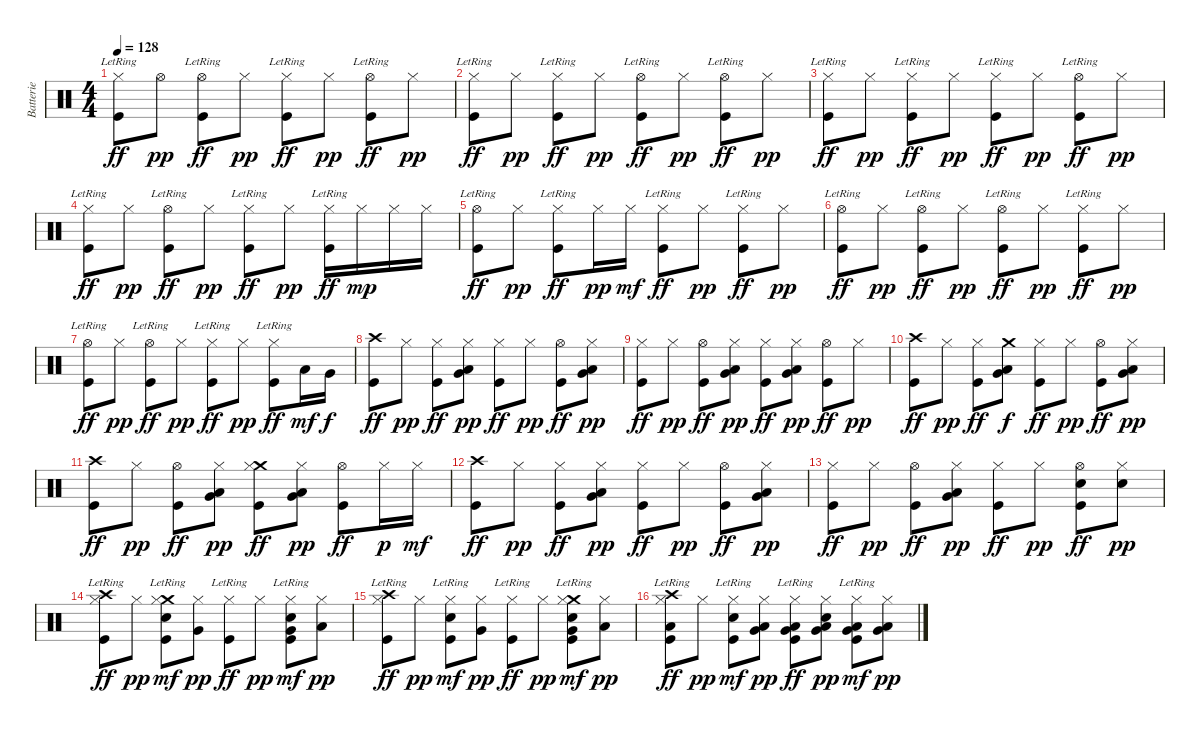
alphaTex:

\track ("Batterie" "Batterie") {instrument percussion}
\staff {score}
\articulation defaults
\ts (4 4)
\tempo 128
\clef neutral
\ks c
("Hi-Hat (closed)" "Kick (hit)"{lr}).8{dy ff} "Hi-Hat (open)".8{dy pp} ("Hi-Hat (open)" "Kick (hit)"{lr}).8{dy ff} "Hi-Hat (closed)".8{dy pp} ("Hi-Hat (closed)" "Kick (hit)"{lr}).8{dy ff} "Hi-Hat (closed)".8{dy pp} ("Hi-Hat (open)" "Kick (hit)"{lr}).8{dy ff} "Hi-Hat (closed)".8{dy pp} |
("Hi-Hat (closed)" "Kick (hit)"{lr}).8{dy ff} "Hi-Hat (closed)".8{dy pp} ("Hi-Hat (closed)" "Kick (hit)"{lr}).8{dy ff} "Hi-Hat (closed)".8{dy pp} ("Hi-Hat (open)" "Kick (hit)"{lr}).8{dy ff} "Hi-Hat (closed)".8{dy pp} ("Hi-Hat (open)" "Kick (hit)"{lr}).8{dy ff} "Hi-Hat (closed)".8{dy pp} |
("Hi-Hat (closed)" "Kick (hit)"{lr}).8{dy ff} "Hi-Hat (closed)".8{dy pp} ("Hi-Hat (closed)" "Kick (hit)"{lr}).8{dy ff} "Hi-Hat (closed)".8{dy pp} ("Hi-Hat (closed)" "Kick (hit)"{lr}).8{dy ff} "Hi-Hat (closed)".8{dy pp} ("Hi-Hat (open)" "Kick (hit)"{lr}).8{dy ff} "Hi-Hat (closed)".8{dy pp} |
("Hi-Hat (closed)" "Kick (hit)"{lr}).8{dy ff} "Hi-Hat (closed)".8{dy pp} ("Hi-Hat (open)" "Kick (hit)"{lr}).8{dy ff} "Hi-Hat (closed)".8{dy pp} ("Hi-Hat (closed)" "Kick (hit)"{lr}).8{dy ff} "Hi-Hat (closed)".8{dy pp} ("Hi-Hat (closed)" "Kick (hit)"{lr}).16{dy ff} "Hi-Hat (closed)".16{dy mp} "Hi-Hat (closed)".16 "Hi-Hat (closed)".16 |
("Hi-Hat (open)" "Kick (hit)"{lr}).8{dy ff} "Hi-Hat (closed)".8{dy pp} ("Hi-Hat (closed)" "Kick (hit)"{lr}).8{dy ff} "Hi-Hat (closed)".16{dy pp} "Hi-Hat (closed)".16{dy mf} ("Hi-Hat (closed)" "Kick (hit)"{lr}).8{dy ff} "Hi-Hat (closed)".8{dy pp} ("Hi-Hat (closed)" "Kick (hit)"{lr}).8{dy ff} "Hi-Hat (closed)".8{dy pp} |
("Hi-Hat (open)" "Kick (hit)"{lr}).8{dy ff} "Hi-Hat (closed)".8{dy pp} ("Hi-Hat (open)" "Kick (hit)"{lr}).8{dy ff} "Hi-Hat (closed)".8{dy pp} ("Hi-Hat (open)" "Kick (hit)"{lr}).8{dy ff} "Hi-Hat (closed)".8{dy pp} ("Hi-Hat (closed)" "Kick (hit)"{lr}).8{dy ff} "Hi-Hat (closed)".8{dy pp} |
("Hi-Hat (open)" "Kick (hit)"{lr}).8{dy ff} "Hi-Hat (closed)".8{dy pp} ("Hi-Hat (open)" "Kick (hit)"{lr}).8{dy ff} "Hi-Hat (closed)".8{dy pp} ("Hi-Hat (closed)" "Kick (hit)"{lr}).8{dy ff} "Hi-Hat (closed)".8{dy pp} ("Hi-Hat (closed)" "Kick (hit)"{lr}).8{dy ff} "Low Tom (hit)".16{dy mf} "Very Low Tom (hit)".16{dy f} |
("Crash high (hit)" "Kick (hit)").8{dy ff} "Hi-Hat (closed)".8{dy pp} ("Hi-Hat (closed)" "Kick (hit)").8{dy ff} ("Very Low Tom (hit)" "Low Tom (hit)" "Hi-Hat (closed)").8{dy pp} ("Hi-Hat (closed)" "Kick (hit)").8{dy ff} "Hi-Hat (closed)".8{dy pp} ("Hi-Hat (open)" "Kick (hit)").8{dy ff} ("Low Floor Tom (hit)" "Very Low Tom (hit)" "Hi-Hat (closed)").8{dy pp} |
("Hi-Hat (closed)" "Kick (hit)").8{dy ff} "Hi-Hat (closed)".8{dy pp} ("Hi-Hat (open)" "Kick (hit)").8{dy ff} ("Very Low Tom (hit)" "Low Tom (hit)" "Hi-Hat (closed)").8{dy pp} ("Hi-Hat (closed)" "Kick (hit)").8{dy ff} ("Low Floor Tom (hit)" "Very Low Tom (hit)" "Hi-Hat (closed)").8{dy pp} ("Hi-Hat (open)" "Kick (hit)").8{dy ff} "Hi-Hat (closed)".8{dy pp} |
("Crash high (hit)" "Kick (hit)").8{dy ff} "Hi-Hat (closed)".8{dy pp} ("Hi-Hat (closed)" "Kick (hit)").8{dy ff} ("Very Low Tom (hit)" "Low Tom (hit)" "Crash medium (hit)").8{dy f} ("Hi-Hat (closed)" "Kick (hit)").8{dy ff} "Hi-Hat (closed)".8{dy pp} ("Hi-Hat (open)" "Kick (hit)").8{dy ff} ("Low Floor Tom (hit)" "Very Low Tom (hit)" "Hi-Hat (closed)").8{dy pp} |
("Crash high (hit)" "Kick (hit)").8{dy ff} "Hi-Hat (closed)".8{dy pp} ("Hi-Hat (open)" "Kick (hit)").8{dy ff} ("Very Low Tom (hit)" "Low Tom (hit)" "Hi-Hat (closed)").8{dy pp} ("Crash medium (hit)" "Hi-Hat (closed)" "Kick (hit)").8{dy ff} ("Low Floor Tom (hit)" "Very Low Tom (hit)" "Hi-Hat (closed)").8{dy pp} ("Hi-Hat (open)" "Kick (hit)").8{dy ff} "Hi-Hat (closed)".16{dy p} "Hi-Hat (closed)".16{dy mf} |
("Crash high (hit)" "Kick (hit)").8{dy ff} "Hi-Hat (closed)".8{dy pp} ("Hi-Hat (closed)" "Kick (hit)").8{dy ff} ("Very Low Tom (hit)" "Low Tom (hit)" "Hi-Hat (closed)").8{dy pp} ("Hi-Hat (closed)" "Kick (hit)").8{dy ff} "Hi-Hat (closed)".8{dy pp} ("Hi-Hat (open)" "Kick (hit)").8{dy ff} ("Low Floor Tom (hit)" "Very Low Tom (hit)" "Hi-Hat (closed)").8{dy pp} |
("Hi-Hat (closed)" "Kick (hit)").8{dy ff} "Hi-Hat (closed)".8{dy pp} ("Hi-Hat (open)" "Kick (hit)").8{dy ff} ("Very Low Tom (hit)" "Low Tom (hit)" "Hi-Hat (closed)").8{dy pp} ("Hi-Hat (closed)" "Kick (hit)").8{dy ff} "Hi-Hat (closed)".8{dy pp} ("Hi-Hat (open)" "Snare (hit) 2" "Kick (hit)").8{dy ff} ("Hi-Hat (closed)" "Snare (hit) 2").8{dy pp} |
("Crash high (hit)" "Hi-Hat (closed)" "Kick (hit)"{lr}).8{dy ff} "Hi-Hat (closed)".8{dy pp} ("Crash medium (hit)" "Hi-Hat (closed)" "Snare (hit) 2" "Kick (hit)"{lr}).8{dy mf} ("Very Low Tom (hit)" "Hi-Hat (closed)").8{dy pp} ("Hi-Hat (closed)" "Kick (hit)"{lr}).8{dy ff} "Hi-Hat (closed)".8{dy pp} ("Very Low Tom (hit)" "Hi-Hat (closed)" "Snare (hit) 2" "Kick (hit)"{lr}).8{dy mf} ("Low Floor Tom (hit)" "Hi-Hat (closed)").8{dy pp} |
("Crash high (hit)" "Hi-Hat (closed)" "Kick (hit)"{lr}).8{dy ff} "Hi-Hat (closed)".8{dy pp} ("Hi-Hat (closed)" "Snare (hit) 2" "Kick (hit)"{lr}).8{dy mf} ("Very Low Tom (hit)" "Hi-Hat (closed)").8{dy pp} ("Hi-Hat (closed)" "Kick (hit)"{lr}).8{dy ff} "Hi-Hat (closed)".8{dy pp} ("Very Low Tom (hit)" "Crash medium (hit)" "Hi-Hat (closed)" "Snare (hit) 2" "Kick (hit)"{lr}).8{dy mf} ("Low Floor Tom (hit)" "Hi-Hat (closed)").8{dy pp} |
("Low Floor Tom (hit)" "Crash high (hit)" "Hi-Hat (closed)" "Kick (hit)"{lr}).8{dy ff} "Hi-Hat (closed)".8{dy pp} ("Hi-Hat (closed)" "Snare (hit) 2" "Kick (hit)"{lr}).8{dy mf} ("Very Low Tom (hit)" "Low Floor Tom (hit)" "Hi-Hat (closed)").8{dy pp} ("Very Low Tom (hit)" "Low Floor Tom (hit)" "Hi-Hat (closed)" "Kick (hit)"{lr}).8{dy ff} ("Very Low Tom (hit)" "Low Floor Tom (hit)" "Hi-Hat (closed)" "Snare (hit) 2").8{dy pp} ("Very Low Tom (hit)" "Low Floor Tom (hit)" "Hi-Hat (closed)" "Kick (hit)"{lr}).8{dy mf} ("Very Low Tom (hit)" "Low Floor Tom (hit)" "Hi-Hat (closed)").8{dy pp}
